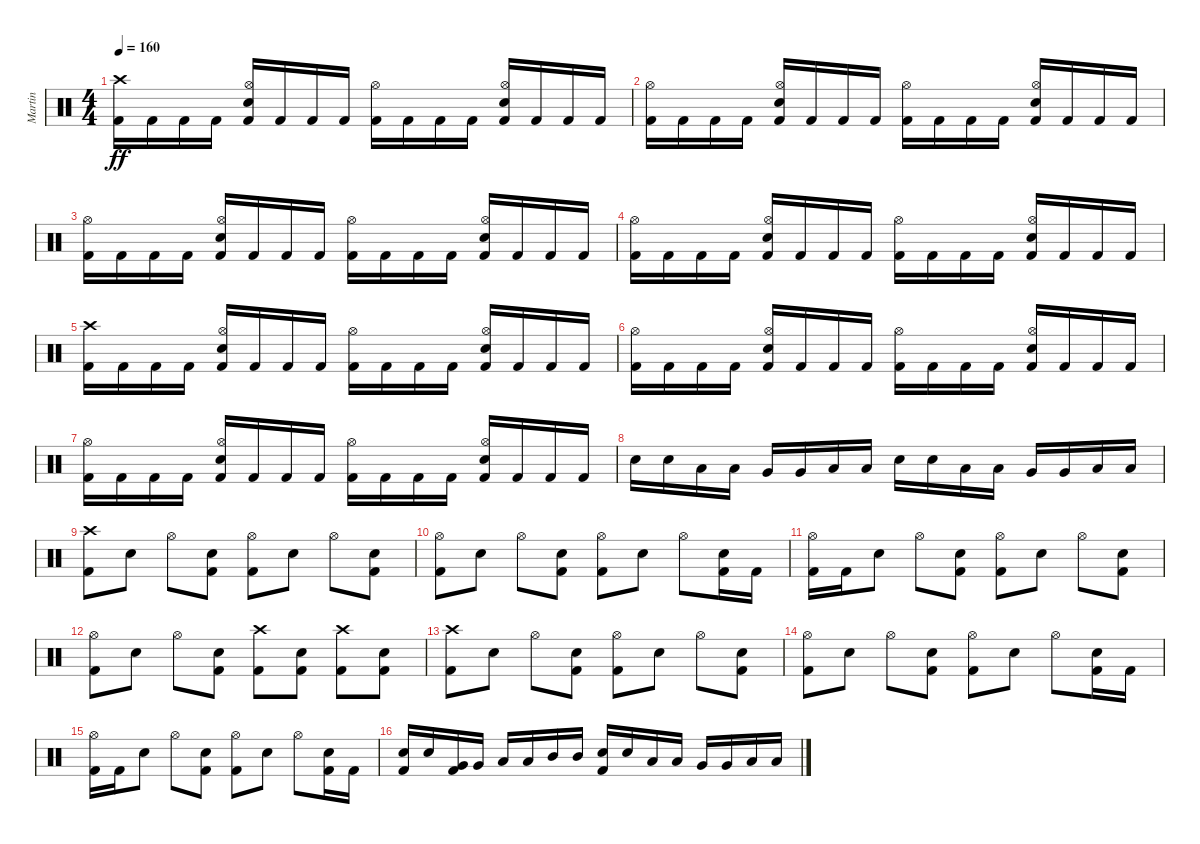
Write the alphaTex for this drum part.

\track ("Martin" "Martin") {instrument percussion}
\staff {score}
\articulation defaults
\ts (4 4)
\tempo 160
\clef neutral
\ks c
("Crash high (hit)" "Kick (hit) 2").16{dy ff} "Kick (hit) 2".16 "Kick (hit) 2".16 "Kick (hit) 2".16 ("Hi-Hat (open)" "Electric Snare (hit)" "Kick (hit) 2").16 "Kick (hit) 2".16 "Kick (hit) 2".16 "Kick (hit) 2".16 ("Hi-Hat (open)" "Kick (hit) 2").16 "Kick (hit) 2".16 "Kick (hit) 2".16 "Kick (hit) 2".16 ("Hi-Hat (open)" "Electric Snare (hit)" "Kick (hit) 2").16 "Kick (hit) 2".16 "Kick (hit) 2".16 "Kick (hit) 2".16 |
("Hi-Hat (open)" "Kick (hit) 2").16 "Kick (hit) 2".16 "Kick (hit) 2".16 "Kick (hit) 2".16 ("Hi-Hat (open)" "Electric Snare (hit)" "Kick (hit) 2").16 "Kick (hit) 2".16 "Kick (hit) 2".16 "Kick (hit) 2".16 ("Hi-Hat (open)" "Kick (hit) 2").16 "Kick (hit) 2".16 "Kick (hit) 2".16 "Kick (hit) 2".16 ("Hi-Hat (open)" "Electric Snare (hit)" "Kick (hit) 2").16 "Kick (hit) 2".16 "Kick (hit) 2".16 "Kick (hit) 2".16 |
("Hi-Hat (open)" "Kick (hit) 2").16 "Kick (hit) 2".16 "Kick (hit) 2".16 "Kick (hit) 2".16 ("Hi-Hat (open)" "Electric Snare (hit)" "Kick (hit) 2").16 "Kick (hit) 2".16 "Kick (hit) 2".16 "Kick (hit) 2".16 ("Hi-Hat (open)" "Kick (hit) 2").16 "Kick (hit) 2".16 "Kick (hit) 2".16 "Kick (hit) 2".16 ("Hi-Hat (open)" "Electric Snare (hit)" "Kick (hit) 2").16 "Kick (hit) 2".16 "Kick (hit) 2".16 "Kick (hit) 2".16 |
("Hi-Hat (open)" "Kick (hit) 2").16 "Kick (hit) 2".16 "Kick (hit) 2".16 "Kick (hit) 2".16 ("Hi-Hat (open)" "Electric Snare (hit)" "Kick (hit) 2").16 "Kick (hit) 2".16 "Kick (hit) 2".16 "Kick (hit) 2".16 ("Hi-Hat (open)" "Kick (hit) 2").16 "Kick (hit) 2".16 "Kick (hit) 2".16 "Kick (hit) 2".16 ("Hi-Hat (open)" "Electric Snare (hit)" "Kick (hit) 2").16 "Kick (hit) 2".16 "Kick (hit) 2".16 "Kick (hit) 2".16 |
("Crash high (hit)" "Kick (hit) 2").16 "Kick (hit) 2".16 "Kick (hit) 2".16 "Kick (hit) 2".16 ("Hi-Hat (open)" "Electric Snare (hit)" "Kick (hit) 2").16 "Kick (hit) 2".16 "Kick (hit) 2".16 "Kick (hit) 2".16 ("Hi-Hat (open)" "Kick (hit) 2").16 "Kick (hit) 2".16 "Kick (hit) 2".16 "Kick (hit) 2".16 ("Hi-Hat (open)" "Electric Snare (hit)" "Kick (hit) 2").16 "Kick (hit) 2".16 "Kick (hit) 2".16 "Kick (hit) 2".16 |
("Hi-Hat (open)" "Kick (hit) 2").16 "Kick (hit) 2".16 "Kick (hit) 2".16 "Kick (hit) 2".16 ("Hi-Hat (open)" "Electric Snare (hit)" "Kick (hit) 2").16 "Kick (hit) 2".16 "Kick (hit) 2".16 "Kick (hit) 2".16 ("Hi-Hat (open)" "Kick (hit) 2").16 "Kick (hit) 2".16 "Kick (hit) 2".16 "Kick (hit) 2".16 ("Hi-Hat (open)" "Electric Snare (hit)" "Kick (hit) 2").16 "Kick (hit) 2".16 "Kick (hit) 2".16 "Kick (hit) 2".16 |
("Hi-Hat (open)" "Kick (hit) 2").16 "Kick (hit) 2".16 "Kick (hit) 2".16 "Kick (hit) 2".16 ("Hi-Hat (open)" "Electric Snare (hit)" "Kick (hit) 2").16 "Kick (hit) 2".16 "Kick (hit) 2".16 "Kick (hit) 2".16 ("Hi-Hat (open)" "Kick (hit) 2").16 "Kick (hit) 2".16 "Kick (hit) 2".16 "Kick (hit) 2".16 ("Hi-Hat (open)" "Electric Snare (hit)" "Kick (hit) 2").16 "Kick (hit) 2".16 "Kick (hit) 2".16 "Kick (hit) 2".16 |
"Electric Snare (hit)".16 "Electric Snare (hit)".16 "Low Tom (hit)".16 "Low Tom (hit)".16 "Very Low Tom (hit)".16 "Very Low Tom (hit)".16 "Low Floor Tom (hit)".16 "Low Floor Tom (hit)".16 "Electric Snare (hit)".16 "Electric Snare (hit)".16 "Low Tom (hit)".16 "Low Tom (hit)".16 "Very Low Tom (hit)".16 "Very Low Tom (hit)".16 "Low Floor Tom (hit)".16 "Low Floor Tom (hit)".16 |
("Crash high (hit)" "Kick (hit) 2").8 "Electric Snare (hit)".8 "Hi-Hat (open)".8 ("Electric Snare (hit)" "Kick (hit) 2").8 ("Hi-Hat (open)" "Kick (hit) 2").8 "Electric Snare (hit)".8 "Hi-Hat (open)".8 ("Electric Snare (hit)" "Kick (hit) 2").8 |
("Hi-Hat (open)" "Kick (hit) 2").8 "Electric Snare (hit)".8 "Hi-Hat (open)".8 ("Electric Snare (hit)" "Kick (hit) 2").8 ("Hi-Hat (open)" "Kick (hit) 2").8 "Electric Snare (hit)".8 "Hi-Hat (open)".8 ("Electric Snare (hit)" "Kick (hit) 2").16 "Kick (hit) 2".16 |
("Hi-Hat (open)" "Kick (hit) 2").16 "Kick (hit) 2".16 "Electric Snare (hit)".8 "Hi-Hat (open)".8 ("Electric Snare (hit)" "Kick (hit) 2").8 ("Hi-Hat (open)" "Kick (hit) 2").8 "Electric Snare (hit)".8 "Hi-Hat (open)".8 ("Electric Snare (hit)" "Kick (hit) 2").8 |
("Hi-Hat (open)" "Kick (hit) 2").8 "Electric Snare (hit)".8 "Hi-Hat (open)".8 ("Electric Snare (hit)" "Kick (hit) 2").8 ("Crash high (hit)" "Kick (hit) 2").8 ("Electric Snare (hit)" "Kick (hit) 2").8 ("Crash high (hit)" "Kick (hit) 2").8 ("Electric Snare (hit)" "Kick (hit) 2").8 |
("Crash high (hit)" "Kick (hit) 2").8 "Electric Snare (hit)".8 "Hi-Hat (open)".8 ("Electric Snare (hit)" "Kick (hit) 2").8 ("Hi-Hat (open)" "Kick (hit) 2").8 "Electric Snare (hit)".8 "Hi-Hat (open)".8 ("Electric Snare (hit)" "Kick (hit) 2").8 |
("Hi-Hat (open)" "Kick (hit) 2").8 "Electric Snare (hit)".8 "Hi-Hat (open)".8 ("Electric Snare (hit)" "Kick (hit) 2").8 ("Hi-Hat (open)" "Kick (hit) 2").8 "Electric Snare (hit)".8 "Hi-Hat (open)".8 ("Electric Snare (hit)" "Kick (hit) 2").16 "Kick (hit) 2".16 |
("Hi-Hat (open)" "Kick (hit) 2").16 "Kick (hit) 2".16 "Electric Snare (hit)".8 "Hi-Hat (open)".8 ("Electric Snare (hit)" "Kick (hit) 2").8 ("Hi-Hat (open)" "Kick (hit) 2").8 "Electric Snare (hit)".8 "Hi-Hat (open)".8 ("Electric Snare (hit)" "Kick (hit) 2").16 "Kick (hit) 2".16 |
("Electric Snare (hit)" "Kick (hit) 2").16 "Electric Snare (hit)".16 ("Very Low Tom (hit)" "Kick (hit) 2").16 "Very Low Tom (hit)".16 "Low Tom (hit)".16 "Low Tom (hit)".16 "Mid Tom (hit)".16 "Mid Tom (hit)".16 ("Electric Snare (hit)" "Kick (hit) 2").16 "Electric Snare (hit)".16 "Low Tom (hit)".16 "Low Tom (hit)".16 "Very Low Tom (hit)".16 "Very Low Tom (hit)".16 "Low Floor Tom (hit)".16 "Low Floor Tom (hit)".16
